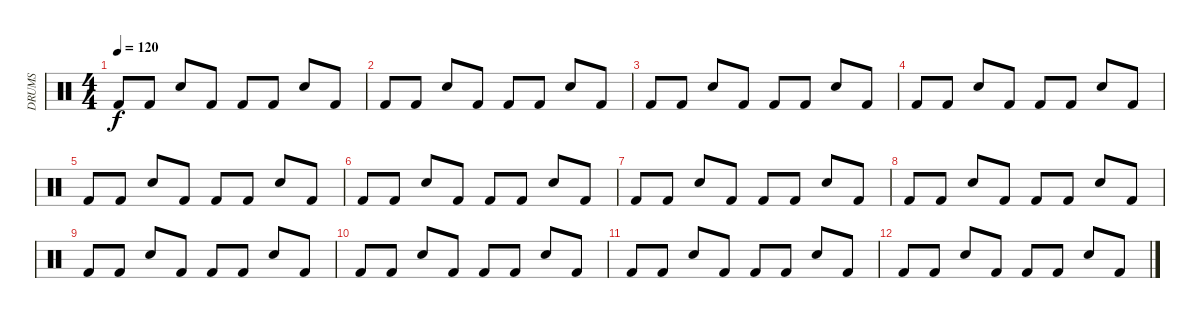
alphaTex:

\track ("DRUMS" "DRUMS") {instrument percussion}
\staff {score}
\articulation defaults
\ts (4 4)
\tempo 120
\clef neutral
\ks c "Kick (hit) 2".8{dy f} "Kick (hit) 2".8 "Snare (hit) 2".8 "Kick (hit) 2".8 "Kick (hit) 2".8 "Kick (hit) 2".8 "Snare (hit) 2".8 "Kick (hit) 2".8
|
"Kick (hit) 2".8 "Kick (hit) 2".8 "Snare (hit) 2".8 "Kick (hit) 2".8 "Kick (hit) 2".8 "Kick (hit) 2".8 "Snare (hit) 2".8 "Kick (hit) 2".8 |
"Kick (hit) 2".8 "Kick (hit) 2".8 "Snare (hit) 2".8 "Kick (hit) 2".8 "Kick (hit) 2".8 "Kick (hit) 2".8 "Snare (hit) 2".8 "Kick (hit) 2".8 |
"Kick (hit) 2".8 "Kick (hit) 2".8 "Snare (hit) 2".8 "Kick (hit) 2".8 "Kick (hit) 2".8 "Kick (hit) 2".8 "Snare (hit) 2".8 "Kick (hit) 2".8 |
"Kick (hit) 2".8 "Kick (hit) 2".8 "Snare (hit) 2".8 "Kick (hit) 2".8 "Kick (hit) 2".8 "Kick (hit) 2".8 "Snare (hit) 2".8 "Kick (hit) 2".8 |
"Kick (hit) 2".8 "Kick (hit) 2".8 "Snare (hit) 2".8 "Kick (hit) 2".8 "Kick (hit) 2".8 "Kick (hit) 2".8 "Snare (hit) 2".8 "Kick (hit) 2".8 |
"Kick (hit) 2".8 "Kick (hit) 2".8 "Snare (hit) 2".8 "Kick (hit) 2".8 "Kick (hit) 2".8 "Kick (hit) 2".8 "Snare (hit) 2".8 "Kick (hit) 2".8 |
"Kick (hit) 2".8 "Kick (hit) 2".8 "Snare (hit) 2".8 "Kick (hit) 2".8 "Kick (hit) 2".8 "Kick (hit) 2".8 "Snare (hit) 2".8 "Kick (hit) 2".8 |
"Kick (hit) 2".8 "Kick (hit) 2".8 "Snare (hit) 2".8 "Kick (hit) 2".8 "Kick (hit) 2".8 "Kick (hit) 2".8 "Snare (hit) 2".8 "Kick (hit) 2".8 |
"Kick (hit) 2".8 "Kick (hit) 2".8 "Snare (hit) 2".8 "Kick (hit) 2".8 "Kick (hit) 2".8 "Kick (hit) 2".8 "Snare (hit) 2".8 "Kick (hit) 2".8 |
"Kick (hit) 2".8 "Kick (hit) 2".8 "Snare (hit) 2".8 "Kick (hit) 2".8 "Kick (hit) 2".8 "Kick (hit) 2".8 "Snare (hit) 2".8 "Kick (hit) 2".8 |
"Kick (hit) 2".8 "Kick (hit) 2".8 "Snare (hit) 2".8 "Kick (hit) 2".8 "Kick (hit) 2".8 "Kick (hit) 2".8 "Snare (hit) 2".8 "Kick (hit) 2".8
